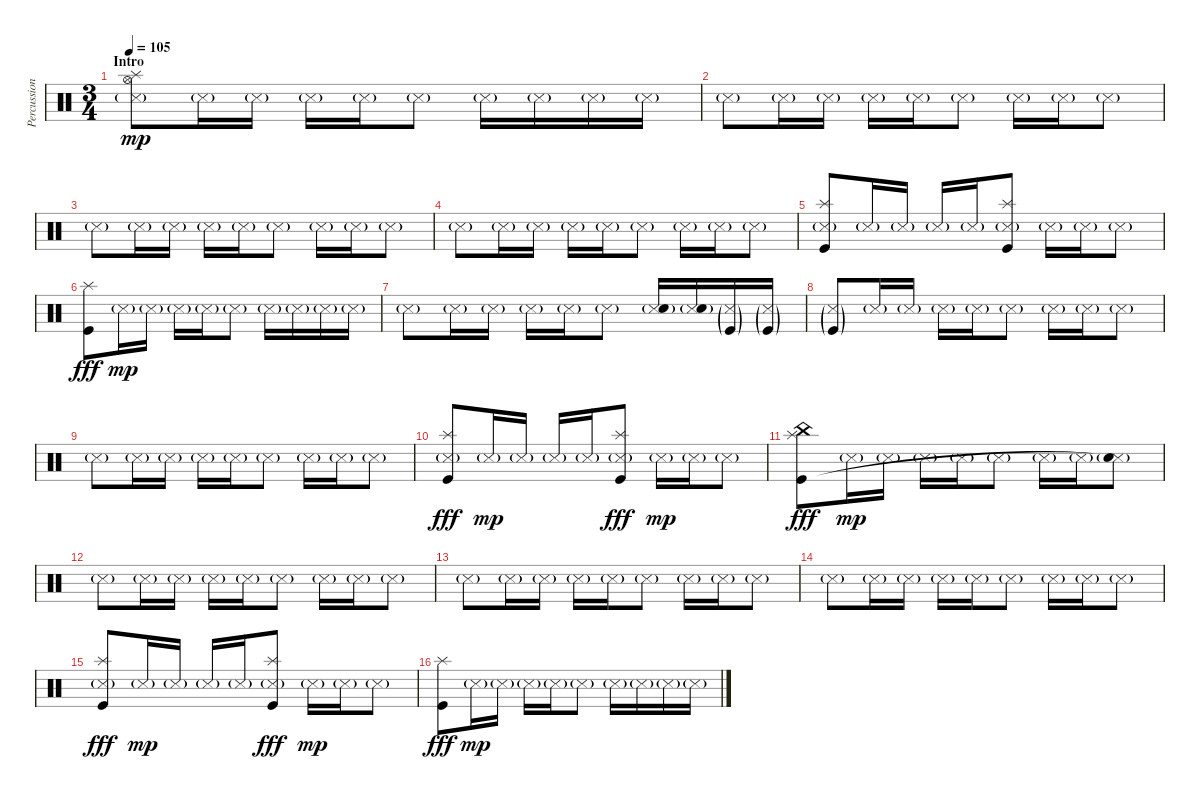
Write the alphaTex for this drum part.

\track ("Percussions" "Percussion") {instrument percussion}
\staff {score}
\articulation defaults
\ts (3 4)
\section ("" "Intro")
\tempo 105
\clef neutral
\ks c
("Metronome (hit)"{g} "Hi-Hat (open)" "Splash (hit)").8{dy mp} "Metronome (hit)"{g}.16 "Metronome (hit)"{g}.16 "Metronome (hit)"{g}.16 "Metronome (hit)"{g}.16 "Metronome (hit)"{g}.8 "Metronome (hit)"{g}.16 "Metronome (hit)"{g}.16 "Metronome (hit)"{g}.16 "Metronome (hit)"{g}.16 |
"Metronome (hit)"{g}.8 "Metronome (hit)"{g}.16 "Metronome (hit)"{g}.16 "Metronome (hit)"{g}.16 "Metronome (hit)"{g}.16 "Metronome (hit)"{g}.8 "Metronome (hit)"{g}.16 "Metronome (hit)"{g}.16 "Metronome (hit)"{g}.8 |
"Metronome (hit)"{g}.8 "Metronome (hit)"{g}.16 "Metronome (hit)"{g}.16 "Metronome (hit)"{g}.16 "Metronome (hit)"{g}.16 "Metronome (hit)"{g}.8 "Metronome (hit)"{g}.16 "Metronome (hit)"{g}.16 "Metronome (hit)"{g}.8 |
"Metronome (hit)"{g}.8 "Metronome (hit)"{g}.16 "Metronome (hit)"{g}.16 "Metronome (hit)"{g}.16 "Metronome (hit)"{g}.16 "Metronome (hit)"{g}.8 "Metronome (hit)"{g}.16 "Metronome (hit)"{g}.16 "Metronome (hit)"{g}.8 |
("Metronome (hit)"{g} "Splash (hit)" "Kick (hit)").8 "Metronome (hit)"{g}.16 "Metronome (hit)"{g}.16 "Metronome (hit)"{g}.16 "Metronome (hit)"{g}.16 ("Metronome (hit)"{g} "Splash (hit)" "Kick (hit)").8 "Metronome (hit)"{g}.16 "Metronome (hit)"{g}.16 "Metronome (hit)"{g}.8 |
("Splash (hit)" "Kick (hit)").8{dy fff} "Metronome (hit)"{g}.16{dy mp} "Metronome (hit)"{g}.16 "Metronome (hit)"{g}.16 "Metronome (hit)"{g}.16 "Metronome (hit)"{g}.8 "Metronome (hit)"{g}.16 "Metronome (hit)"{g}.16 "Metronome (hit)"{g}.16 "Metronome (hit)"{g}.16 |
"Metronome (hit)"{g}.8 "Metronome (hit)"{g}.16 "Metronome (hit)"{g}.16 "Metronome (hit)"{g}.16 "Metronome (hit)"{g}.16 "Metronome (hit)"{g}.8 ("Metronome (hit)"{g} "Snare (hit) 2"{g}).16 ("Metronome (hit)"{g} "Snare (hit) 2"{g}).16 ("Metronome (hit)"{g} "Kick (hit)"{g}).16 ("Metronome (hit)"{g} "Kick (hit)"{g}).16 |
("Metronome (hit)"{g} "Kick (hit)"{g}).8 "Metronome (hit)"{g}.16 "Metronome (hit)"{g}.16 "Metronome (hit)"{g}.16 "Metronome (hit)"{g}.16 "Metronome (hit)"{g}.8 "Metronome (hit)"{g}.16 "Metronome (hit)"{g}.16 "Metronome (hit)"{g}.8 |
"Metronome (hit)"{g}.8 "Metronome (hit)"{g}.16 "Metronome (hit)"{g}.16 "Metronome (hit)"{g}.16 "Metronome (hit)"{g}.16 "Metronome (hit)"{g}.8 "Metronome (hit)"{g}.16 "Metronome (hit)"{g}.16 "Metronome (hit)"{g}.8 |
("Metronome (hit)"{g} "Splash (hit)" "Kick (hit)").8{dy fff} "Metronome (hit)"{g}.16{dy mp} "Metronome (hit)"{g}.16 "Metronome (hit)"{g}.16 "Metronome (hit)"{g}.16 ("Metronome (hit)"{g} "Splash (hit)" "Kick (hit)").8{dy fff} "Metronome (hit)"{g}.16{dy mp} "Metronome (hit)"{g}.16 "Metronome (hit)"{g}.8 |
("Splash (hit)" "Kick (hit)" "China (hit)").8{dy fff} "Metronome (hit)"{g}.16{dy mp} "Metronome (hit)"{g}.16 "Metronome (hit)"{g}.16 "Metronome (hit)"{g}.16 "Metronome (hit)"{g}.8 "Metronome (hit)"{g}.16 "Metronome (hit)"{g}.16 ("Metronome (hit)"{g} "Snare (hit)"{t}).8 |
"Metronome (hit)"{g}.8 "Metronome (hit)"{g}.16 "Metronome (hit)"{g}.16 "Metronome (hit)"{g}.16 "Metronome (hit)"{g}.16 "Metronome (hit)"{g}.8 "Metronome (hit)"{g}.16 "Metronome (hit)"{g}.16 "Metronome (hit)"{g}.8 |
"Metronome (hit)"{g}.8 "Metronome (hit)"{g}.16 "Metronome (hit)"{g}.16 "Metronome (hit)"{g}.16 "Metronome (hit)"{g}.16 "Metronome (hit)"{g}.8 "Metronome (hit)"{g}.16 "Metronome (hit)"{g}.16 "Metronome (hit)"{g}.8 |
"Metronome (hit)"{g}.8 "Metronome (hit)"{g}.16 "Metronome (hit)"{g}.16 "Metronome (hit)"{g}.16 "Metronome (hit)"{g}.16 "Metronome (hit)"{g}.8 "Metronome (hit)"{g}.16 "Metronome (hit)"{g}.16 "Metronome (hit)"{g}.8 |
("Metronome (hit)"{g} "Splash (hit)" "Kick (hit)").8{dy fff} "Metronome (hit)"{g}.16{dy mp} "Metronome (hit)"{g}.16 "Metronome (hit)"{g}.16 "Metronome (hit)"{g}.16 ("Metronome (hit)"{g} "Splash (hit)" "Kick (hit)").8{dy fff} "Metronome (hit)"{g}.16{dy mp} "Metronome (hit)"{g}.16 "Metronome (hit)"{g}.8 |
("Splash (hit)" "Kick (hit)").8{dy fff} "Metronome (hit)"{g}.16{dy mp} "Metronome (hit)"{g}.16 "Metronome (hit)"{g}.16 "Metronome (hit)"{g}.16 "Metronome (hit)"{g}.8 "Metronome (hit)"{g}.16 "Metronome (hit)"{g}.16 "Metronome (hit)"{g}.16 "Metronome (hit)"{g}.16
